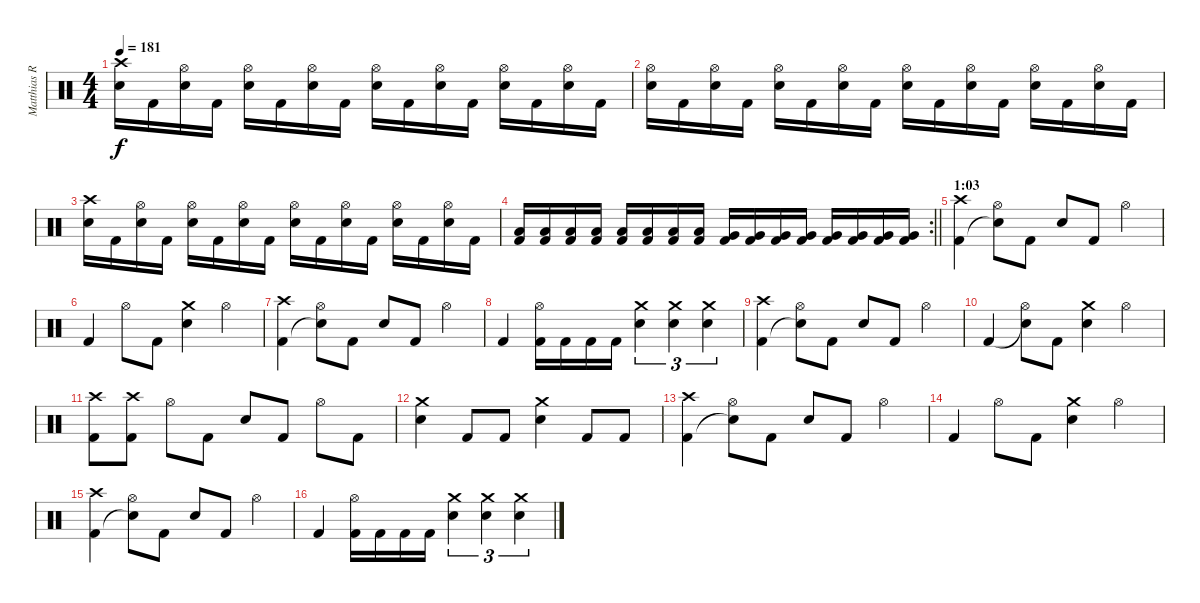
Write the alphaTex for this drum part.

\track ("Matthias R." "Matthias R") {instrument percussion}
\staff {score}
\articulation defaults
\ts (4 4)
\tempo 181
\clef neutral
\ks c
("Snare (hit) 2" "Crash high (hit)").16{dy f} "Kick (hit) 2".16 ("Snare (hit) 2" "Hi-Hat (open)").16 "Kick (hit) 2".16 ("Snare (hit) 2" "Hi-Hat (open)").16 "Kick (hit) 2".16 ("Snare (hit) 2" "Hi-Hat (open)").16 "Kick (hit) 2".16 ("Snare (hit) 2" "Hi-Hat (open)").16 "Kick (hit) 2".16 ("Snare (hit) 2" "Hi-Hat (open)").16 "Kick (hit) 2".16 ("Snare (hit) 2" "Hi-Hat (open)").16 "Kick (hit) 2".16 ("Snare (hit) 2" "Hi-Hat (open)").16 "Kick (hit) 2".16 |
("Snare (hit) 2" "Hi-Hat (open)").16 "Kick (hit) 2".16 ("Snare (hit) 2" "Hi-Hat (open)").16 "Kick (hit) 2".16 ("Snare (hit) 2" "Hi-Hat (open)").16 "Kick (hit) 2".16 ("Snare (hit) 2" "Hi-Hat (open)").16 "Kick (hit) 2".16 ("Snare (hit) 2" "Hi-Hat (open)").16 "Kick (hit) 2".16 ("Snare (hit) 2" "Hi-Hat (open)").16 "Kick (hit) 2".16 ("Snare (hit) 2" "Hi-Hat (open)").16 "Kick (hit) 2".16 ("Snare (hit) 2" "Hi-Hat (open)").16 "Kick (hit) 2".16 |
("Snare (hit) 2" "Crash high (hit)").16 "Kick (hit) 2".16 ("Snare (hit) 2" "Hi-Hat (open)").16 "Kick (hit) 2".16 ("Snare (hit) 2" "Hi-Hat (open)").16 "Kick (hit) 2".16 ("Snare (hit) 2" "Hi-Hat (open)").16 "Kick (hit) 2".16 ("Snare (hit) 2" "Hi-Hat (open)").16 "Kick (hit) 2".16 ("Snare (hit) 2" "Hi-Hat (open)").16 "Kick (hit) 2".16 ("Snare (hit) 2" "Hi-Hat (open)").16 "Kick (hit) 2".16 ("Snare (hit) 2" "Hi-Hat (open)").16 "Kick (hit) 2".16 |
\rc 2
\barLineRight lightlight
("Kick (hit) 2" "Low Tom (hit)").16 ("Kick (hit) 2" "Low Tom (hit)").16 ("Kick (hit) 2" "Low Tom (hit)").16 ("Kick (hit) 2" "Low Tom (hit)").16 ("Kick (hit) 2" "Low Tom (hit)").16 ("Kick (hit) 2" "Low Tom (hit)").16 ("Kick (hit) 2" "Low Tom (hit)").16 ("Kick (hit) 2" "Low Tom (hit)").16 ("Kick (hit) 2" "Very Low Tom (hit)").16 ("Kick (hit) 2" "Very Low Tom (hit)").16 ("Kick (hit) 2" "Very Low Tom (hit)").16 ("Kick (hit) 2" "Very Low Tom (hit)").16 ("Kick (hit) 2" "Very Low Tom (hit)").16 ("Kick (hit) 2" "Very Low Tom (hit)").16 ("Kick (hit) 2" "Very Low Tom (hit)").16 ("Kick (hit) 2" "Very Low Tom (hit)").16 |
\section ("" "1:03")
("Kick (hit) 2" "Crash high (hit)").4 ("Snare (hit)"{t} "Hi-Hat (open)").8 "Kick (hit) 2".8 "Snare (hit) 2".8 "Kick (hit) 2".8 "Hi-Hat (open)".4 |
"Kick (hit) 2".4 "Hi-Hat (open)".8 "Kick (hit) 2".8 ("Snare (hit) 2" "Crash medium (hit)").4 "Hi-Hat (open)".4 |
("Kick (hit) 2" "Crash high (hit)").4 ("Snare (hit)"{t} "Hi-Hat (open)").8 "Kick (hit) 2".8 "Snare (hit) 2".8 "Kick (hit) 2".8 "Hi-Hat (open)".4 |
"Kick (hit) 2".4 ("Kick (hit) 2" "Hi-Hat (open)").16 "Kick (hit) 2".16 "Kick (hit) 2".16 "Kick (hit) 2".16 ("Snare (hit) 2" "Crash medium (hit)").4{tu (3 2)} ("Snare (hit) 2" "Crash medium (hit)").4{tu (3 2)} ("Snare (hit) 2" "Crash medium (hit)").4{tu (3 2)} |
("Kick (hit) 2" "Crash high (hit)").4 ("Snare (hit)"{t} "Hi-Hat (open)").8 "Kick (hit) 2".8 "Snare (hit) 2".8 "Kick (hit) 2".8 "Hi-Hat (open)".4 |
"Kick (hit) 2".4 ("Snare (hit)"{t} "Hi-Hat (open)").8 "Kick (hit) 2".8 ("Snare (hit) 2" "Crash medium (hit)").4 "Hi-Hat (open)".4 |
("Kick (hit) 2" "Crash high (hit)").8 ("Kick (hit) 2" "Crash high (hit)").8 "Hi-Hat (open)".8 "Kick (hit) 2".8 "Snare (hit) 2".8 "Kick (hit) 2".8 "Hi-Hat (open)".8 "Kick (hit) 2".8 |
("Snare (hit) 2" "Crash medium (hit)").4 "Kick (hit) 2".8 "Kick (hit) 2".8 ("Snare (hit) 2" "Crash medium (hit)").4 "Kick (hit) 2".8 "Kick (hit) 2".8 |
("Kick (hit) 2" "Crash high (hit)").4 ("Snare (hit)"{t} "Hi-Hat (open)").8 "Kick (hit) 2".8 "Snare (hit) 2".8 "Kick (hit) 2".8 "Hi-Hat (open)".4 |
"Kick (hit) 2".4 "Hi-Hat (open)".8 "Kick (hit) 2".8 ("Snare (hit) 2" "Crash medium (hit)").4 "Hi-Hat (open)".4 |
("Kick (hit) 2" "Crash high (hit)").4 ("Snare (hit)"{t} "Hi-Hat (open)").8 "Kick (hit) 2".8 "Snare (hit) 2".8 "Kick (hit) 2".8 "Hi-Hat (open)".4 |
"Kick (hit) 2".4 ("Kick (hit) 2" "Hi-Hat (open)").16 "Kick (hit) 2".16 "Kick (hit) 2".16 "Kick (hit) 2".16 ("Snare (hit) 2" "Crash medium (hit)").4{tu (3 2)} ("Snare (hit) 2" "Crash medium (hit)").4{tu (3 2)} ("Snare (hit) 2" "Crash medium (hit)").4{tu (3 2)}
